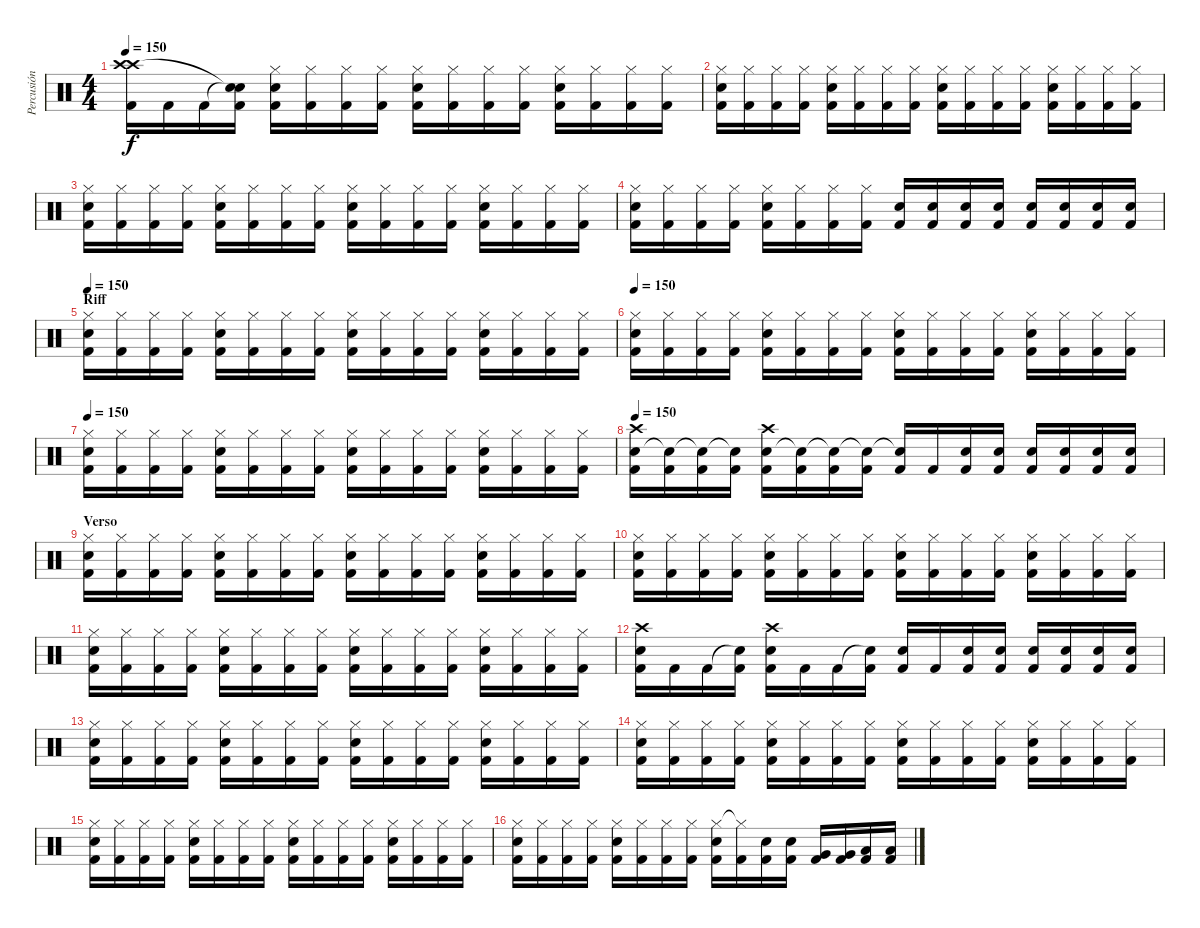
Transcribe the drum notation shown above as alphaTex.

\track ("Percusión" "Percusión") {instrument percussion}
\staff {score}
\articulation defaults
\ts (4 4)
\tempo 150
\clef neutral
\ks c
("Crash high (hit)" "Crash high (hit)" "Kick (hit) 2").16{dy f} "Kick (hit) 2".16 "Kick (hit) 2".16 ("Snare (hit)"{t} "Snare (hit)"{t} "Kick (hit) 2").16 ("Hi-Hat (closed)" "Electric Snare (hit)" "Kick (hit) 2").16 ("Hi-Hat (closed)" "Kick (hit) 2").16 ("Hi-Hat (closed)" "Kick (hit) 2").16 ("Hi-Hat (closed)" "Kick (hit) 2").16 ("Hi-Hat (closed)" "Electric Snare (hit)" "Kick (hit) 2").16 ("Hi-Hat (closed)" "Kick (hit) 2").16 ("Hi-Hat (closed)" "Kick (hit) 2").16 ("Hi-Hat (closed)" "Kick (hit) 2").16 ("Hi-Hat (closed)" "Electric Snare (hit)" "Kick (hit) 2").16 ("Hi-Hat (closed)" "Kick (hit) 2").16 ("Hi-Hat (closed)" "Kick (hit) 2").16 ("Hi-Hat (closed)" "Kick (hit) 2").16 |
("Hi-Hat (closed)" "Electric Snare (hit)" "Kick (hit) 2").16 ("Hi-Hat (closed)" "Kick (hit) 2").16 ("Hi-Hat (closed)" "Kick (hit) 2").16 ("Hi-Hat (closed)" "Kick (hit) 2").16 ("Hi-Hat (closed)" "Electric Snare (hit)" "Kick (hit) 2").16 ("Hi-Hat (closed)" "Kick (hit) 2").16 ("Hi-Hat (closed)" "Kick (hit) 2").16 ("Hi-Hat (closed)" "Kick (hit) 2").16 ("Hi-Hat (closed)" "Electric Snare (hit)" "Kick (hit) 2").16 ("Hi-Hat (closed)" "Kick (hit) 2").16 ("Hi-Hat (closed)" "Kick (hit) 2").16 ("Hi-Hat (closed)" "Kick (hit) 2").16 ("Hi-Hat (closed)" "Electric Snare (hit)" "Kick (hit) 2").16 ("Hi-Hat (closed)" "Kick (hit) 2").16 ("Hi-Hat (closed)" "Kick (hit) 2").16 ("Hi-Hat (closed)" "Kick (hit) 2").16 |
("Hi-Hat (closed)" "Electric Snare (hit)" "Kick (hit) 2").16 ("Hi-Hat (closed)" "Kick (hit) 2").16 ("Hi-Hat (closed)" "Kick (hit) 2").16 ("Hi-Hat (closed)" "Kick (hit) 2").16 ("Hi-Hat (closed)" "Electric Snare (hit)" "Kick (hit) 2").16 ("Hi-Hat (closed)" "Kick (hit) 2").16 ("Hi-Hat (closed)" "Kick (hit) 2").16 ("Hi-Hat (closed)" "Kick (hit) 2").16 ("Hi-Hat (closed)" "Electric Snare (hit)" "Kick (hit) 2").16 ("Hi-Hat (closed)" "Kick (hit) 2").16 ("Hi-Hat (closed)" "Kick (hit) 2").16 ("Hi-Hat (closed)" "Kick (hit) 2").16 ("Hi-Hat (closed)" "Electric Snare (hit)" "Kick (hit) 2").16 ("Hi-Hat (closed)" "Kick (hit) 2").16 ("Hi-Hat (closed)" "Kick (hit) 2").16 ("Hi-Hat (closed)" "Kick (hit) 2").16 |
("Hi-Hat (closed)" "Electric Snare (hit)" "Kick (hit) 2").16 ("Hi-Hat (closed)" "Kick (hit) 2").16 ("Hi-Hat (closed)" "Kick (hit) 2").16 ("Hi-Hat (closed)" "Kick (hit) 2").16 ("Hi-Hat (closed)" "Electric Snare (hit)" "Kick (hit) 2").16 ("Hi-Hat (closed)" "Kick (hit) 2").16 ("Hi-Hat (closed)" "Kick (hit) 2").16 ("Hi-Hat (closed)" "Kick (hit) 2").16 ("Electric Snare (hit)" "Kick (hit) 2").16 ("Electric Snare (hit)" "Kick (hit) 2").16 ("Electric Snare (hit)" "Kick (hit) 2").16 ("Electric Snare (hit)" "Kick (hit) 2").16 ("Electric Snare (hit)" "Kick (hit) 2").16 ("Electric Snare (hit)" "Kick (hit) 2").16 ("Electric Snare (hit)" "Kick (hit) 2").16 ("Electric Snare (hit)" "Kick (hit) 2").16 |
\section ("" "Riff")
\tempo 150
("Hi-Hat (closed)" "Electric Snare (hit)" "Kick (hit) 2").16 ("Hi-Hat (closed)" "Kick (hit) 2").16 ("Hi-Hat (closed)" "Kick (hit) 2").16 ("Hi-Hat (closed)" "Kick (hit) 2").16 ("Hi-Hat (closed)" "Electric Snare (hit)" "Kick (hit) 2").16 ("Hi-Hat (closed)" "Kick (hit) 2").16 ("Hi-Hat (closed)" "Kick (hit) 2").16 ("Hi-Hat (closed)" "Kick (hit) 2").16 ("Hi-Hat (closed)" "Electric Snare (hit)" "Kick (hit) 2").16 ("Hi-Hat (closed)" "Kick (hit) 2").16 ("Hi-Hat (closed)" "Kick (hit) 2").16 ("Hi-Hat (closed)" "Kick (hit) 2").16 ("Hi-Hat (closed)" "Electric Snare (hit)" "Kick (hit) 2").16 ("Hi-Hat (closed)" "Kick (hit) 2").16 ("Hi-Hat (closed)" "Kick (hit) 2").16 ("Hi-Hat (closed)" "Kick (hit) 2").16 |
\tempo 150
("Hi-Hat (closed)" "Electric Snare (hit)" "Kick (hit) 2").16 ("Hi-Hat (closed)" "Kick (hit) 2").16 ("Hi-Hat (closed)" "Kick (hit) 2").16 ("Hi-Hat (closed)" "Kick (hit) 2").16 ("Hi-Hat (closed)" "Electric Snare (hit)" "Kick (hit) 2").16 ("Hi-Hat (closed)" "Kick (hit) 2").16 ("Hi-Hat (closed)" "Kick (hit) 2").16 ("Hi-Hat (closed)" "Kick (hit) 2").16 ("Hi-Hat (closed)" "Electric Snare (hit)" "Kick (hit) 2").16 ("Hi-Hat (closed)" "Kick (hit) 2").16 ("Hi-Hat (closed)" "Kick (hit) 2").16 ("Hi-Hat (closed)" "Kick (hit) 2").16 ("Hi-Hat (closed)" "Electric Snare (hit)" "Kick (hit) 2").16 ("Hi-Hat (closed)" "Kick (hit) 2").16 ("Hi-Hat (closed)" "Kick (hit) 2").16 ("Hi-Hat (closed)" "Kick (hit) 2").16 |
\tempo 150
("Hi-Hat (closed)" "Electric Snare (hit)" "Kick (hit) 2").16 ("Hi-Hat (closed)" "Kick (hit) 2").16 ("Hi-Hat (closed)" "Kick (hit) 2").16 ("Hi-Hat (closed)" "Kick (hit) 2").16 ("Hi-Hat (closed)" "Electric Snare (hit)" "Kick (hit) 2").16 ("Hi-Hat (closed)" "Kick (hit) 2").16 ("Hi-Hat (closed)" "Kick (hit) 2").16 ("Hi-Hat (closed)" "Kick (hit) 2").16 ("Hi-Hat (closed)" "Electric Snare (hit)" "Kick (hit) 2").16 ("Hi-Hat (closed)" "Kick (hit) 2").16 ("Hi-Hat (closed)" "Kick (hit) 2").16 ("Hi-Hat (closed)" "Kick (hit) 2").16 ("Hi-Hat (closed)" "Electric Snare (hit)" "Kick (hit) 2").16 ("Hi-Hat (closed)" "Kick (hit) 2").16 ("Hi-Hat (closed)" "Kick (hit) 2").16 ("Hi-Hat (closed)" "Kick (hit) 2").16 |
\tempo 150
("Electric Snare (hit)" "Crash high (hit)" "Kick (hit) 2").16 ("Snare (hit)"{t} "Kick (hit) 2").16 ("Snare (hit)"{t} "Kick (hit) 2").16 ("Snare (hit)"{t} "Kick (hit) 2").16 ("Electric Snare (hit)" "Crash high (hit)" "Kick (hit) 2").16 ("Snare (hit)"{t} "Kick (hit) 2").16 ("Snare (hit)"{t} "Kick (hit) 2").16 ("Snare (hit)"{t} "Kick (hit) 2").16 ("Snare (hit)"{t} "Kick (hit) 2").16 "Kick (hit) 2".16 ("Electric Snare (hit)" "Kick (hit) 2").16 ("Electric Snare (hit)" "Kick (hit) 2").16 ("Electric Snare (hit)" "Kick (hit) 2").16 ("Electric Snare (hit)" "Kick (hit) 2").16 ("Electric Snare (hit)" "Kick (hit) 2").16 ("Electric Snare (hit)" "Kick (hit) 2").16 |
\section ("" "Verso")
("Hi-Hat (closed)" "Electric Snare (hit)" "Kick (hit) 2").16 ("Hi-Hat (closed)" "Kick (hit) 2").16 ("Hi-Hat (closed)" "Kick (hit) 2").16 ("Hi-Hat (closed)" "Kick (hit) 2").16 ("Hi-Hat (closed)" "Electric Snare (hit)" "Kick (hit) 2").16 ("Hi-Hat (closed)" "Kick (hit) 2").16 ("Hi-Hat (closed)" "Kick (hit) 2").16 ("Hi-Hat (closed)" "Kick (hit) 2").16 ("Hi-Hat (closed)" "Electric Snare (hit)" "Kick (hit) 2").16 ("Hi-Hat (closed)" "Kick (hit) 2").16 ("Hi-Hat (closed)" "Kick (hit) 2").16 ("Hi-Hat (closed)" "Kick (hit) 2").16 ("Hi-Hat (closed)" "Electric Snare (hit)" "Kick (hit) 2").16 ("Hi-Hat (closed)" "Kick (hit) 2").16 ("Hi-Hat (closed)" "Kick (hit) 2").16 ("Hi-Hat (closed)" "Kick (hit) 2").16 |
("Hi-Hat (closed)" "Electric Snare (hit)" "Kick (hit) 2").16 ("Hi-Hat (closed)" "Kick (hit) 2").16 ("Hi-Hat (closed)" "Kick (hit) 2").16 ("Hi-Hat (closed)" "Kick (hit) 2").16 ("Hi-Hat (closed)" "Electric Snare (hit)" "Kick (hit) 2").16 ("Hi-Hat (closed)" "Kick (hit) 2").16 ("Hi-Hat (closed)" "Kick (hit) 2").16 ("Hi-Hat (closed)" "Kick (hit) 2").16 ("Hi-Hat (closed)" "Electric Snare (hit)" "Kick (hit) 2").16 ("Hi-Hat (closed)" "Kick (hit) 2").16 ("Hi-Hat (closed)" "Kick (hit) 2").16 ("Hi-Hat (closed)" "Kick (hit) 2").16 ("Hi-Hat (closed)" "Electric Snare (hit)" "Kick (hit) 2").16 ("Hi-Hat (closed)" "Kick (hit) 2").16 ("Hi-Hat (closed)" "Kick (hit) 2").16 ("Hi-Hat (closed)" "Kick (hit) 2").16 |
("Hi-Hat (closed)" "Electric Snare (hit)" "Kick (hit) 2").16 ("Hi-Hat (closed)" "Kick (hit) 2").16 ("Hi-Hat (closed)" "Kick (hit) 2").16 ("Hi-Hat (closed)" "Kick (hit) 2").16 ("Hi-Hat (closed)" "Electric Snare (hit)" "Kick (hit) 2").16 ("Hi-Hat (closed)" "Kick (hit) 2").16 ("Hi-Hat (closed)" "Kick (hit) 2").16 ("Hi-Hat (closed)" "Kick (hit) 2").16 ("Hi-Hat (closed)" "Electric Snare (hit)" "Kick (hit) 2").16 ("Hi-Hat (closed)" "Kick (hit) 2").16 ("Hi-Hat (closed)" "Kick (hit) 2").16 ("Hi-Hat (closed)" "Kick (hit) 2").16 ("Hi-Hat (closed)" "Electric Snare (hit)" "Kick (hit) 2").16 ("Hi-Hat (closed)" "Kick (hit) 2").16 ("Hi-Hat (closed)" "Kick (hit) 2").16 ("Hi-Hat (closed)" "Kick (hit) 2").16 |
("Electric Snare (hit)" "Crash high (hit)" "Kick (hit) 2").16 "Kick (hit) 2".16 "Kick (hit) 2".16 ("Snare (hit)"{t} "Kick (hit) 2").16 ("Electric Snare (hit)" "Crash high (hit)" "Kick (hit) 2").16 "Kick (hit) 2".16 "Kick (hit) 2".16 ("Snare (hit)"{t} "Kick (hit) 2").16 ("Electric Snare (hit)" "Kick (hit) 2").16 "Kick (hit) 2".16 ("Electric Snare (hit)" "Kick (hit) 2").16 ("Electric Snare (hit)" "Kick (hit) 2").16 ("Electric Snare (hit)" "Kick (hit) 2").16 ("Electric Snare (hit)" "Kick (hit) 2").16 ("Electric Snare (hit)" "Kick (hit) 2").16 ("Electric Snare (hit)" "Kick (hit) 2").16 |
("Hi-Hat (closed)" "Electric Snare (hit)" "Kick (hit) 2").16 ("Hi-Hat (closed)" "Kick (hit) 2").16 ("Hi-Hat (closed)" "Kick (hit) 2").16 ("Hi-Hat (closed)" "Kick (hit) 2").16 ("Hi-Hat (closed)" "Electric Snare (hit)" "Kick (hit) 2").16 ("Hi-Hat (closed)" "Kick (hit) 2").16 ("Hi-Hat (closed)" "Kick (hit) 2").16 ("Hi-Hat (closed)" "Kick (hit) 2").16 ("Hi-Hat (closed)" "Electric Snare (hit)" "Kick (hit) 2").16 ("Hi-Hat (closed)" "Kick (hit) 2").16 ("Hi-Hat (closed)" "Kick (hit) 2").16 ("Hi-Hat (closed)" "Kick (hit) 2").16 ("Hi-Hat (closed)" "Electric Snare (hit)" "Kick (hit) 2").16 ("Hi-Hat (closed)" "Kick (hit) 2").16 ("Hi-Hat (closed)" "Kick (hit) 2").16 ("Hi-Hat (closed)" "Kick (hit) 2").16 |
("Hi-Hat (closed)" "Electric Snare (hit)" "Kick (hit) 2").16 ("Hi-Hat (closed)" "Kick (hit) 2").16 ("Hi-Hat (closed)" "Kick (hit) 2").16 ("Hi-Hat (closed)" "Kick (hit) 2").16 ("Hi-Hat (closed)" "Electric Snare (hit)" "Kick (hit) 2").16 ("Hi-Hat (closed)" "Kick (hit) 2").16 ("Hi-Hat (closed)" "Kick (hit) 2").16 ("Hi-Hat (closed)" "Kick (hit) 2").16 ("Hi-Hat (closed)" "Electric Snare (hit)" "Kick (hit) 2").16 ("Hi-Hat (closed)" "Kick (hit) 2").16 ("Hi-Hat (closed)" "Kick (hit) 2").16 ("Hi-Hat (closed)" "Kick (hit) 2").16 ("Hi-Hat (closed)" "Electric Snare (hit)" "Kick (hit) 2").16 ("Hi-Hat (closed)" "Kick (hit) 2").16 ("Hi-Hat (closed)" "Kick (hit) 2").16 ("Hi-Hat (closed)" "Kick (hit) 2").16 |
("Hi-Hat (closed)" "Electric Snare (hit)" "Kick (hit) 2").16 ("Hi-Hat (closed)" "Kick (hit) 2").16 ("Hi-Hat (closed)" "Kick (hit) 2").16 ("Hi-Hat (closed)" "Kick (hit) 2").16 ("Hi-Hat (closed)" "Electric Snare (hit)" "Kick (hit) 2").16 ("Hi-Hat (closed)" "Kick (hit) 2").16 ("Hi-Hat (closed)" "Kick (hit) 2").16 ("Hi-Hat (closed)" "Kick (hit) 2").16 ("Hi-Hat (closed)" "Electric Snare (hit)" "Kick (hit) 2").16 ("Hi-Hat (closed)" "Kick (hit) 2").16 ("Hi-Hat (closed)" "Kick (hit) 2").16 ("Hi-Hat (closed)" "Kick (hit) 2").16 ("Hi-Hat (closed)" "Electric Snare (hit)" "Kick (hit) 2").16 ("Hi-Hat (closed)" "Kick (hit) 2").16 ("Hi-Hat (closed)" "Kick (hit) 2").16 ("Hi-Hat (closed)" "Kick (hit) 2").16 |
("Hi-Hat (closed)" "Electric Snare (hit)" "Kick (hit) 2").16 ("Hi-Hat (closed)" "Kick (hit) 2").16 ("Hi-Hat (closed)" "Kick (hit) 2").16 ("Hi-Hat (closed)" "Kick (hit) 2").16 ("Hi-Hat (closed)" "Electric Snare (hit)" "Kick (hit) 2").16 ("Hi-Hat (closed)" "Kick (hit) 2").16 ("Hi-Hat (closed)" "Kick (hit) 2").16 ("Hi-Hat (closed)" "Kick (hit) 2").16 ("Hi-Hat (closed)" "Electric Snare (hit)" "Kick (hit) 2").16 ("Hi-Hat (closed)"{t} "Kick (hit) 2").16 ("Electric Snare (hit)" "Kick (hit) 2").16 ("Electric Snare (hit)" "Kick (hit) 2").16 ("Very Low Tom (hit)" "Kick (hit) 2").16 ("Very Low Tom (hit)" "Kick (hit) 2").16 ("Low Tom (hit)" "Kick (hit) 2").16 ("Low Tom (hit)" "Kick (hit) 2").16
